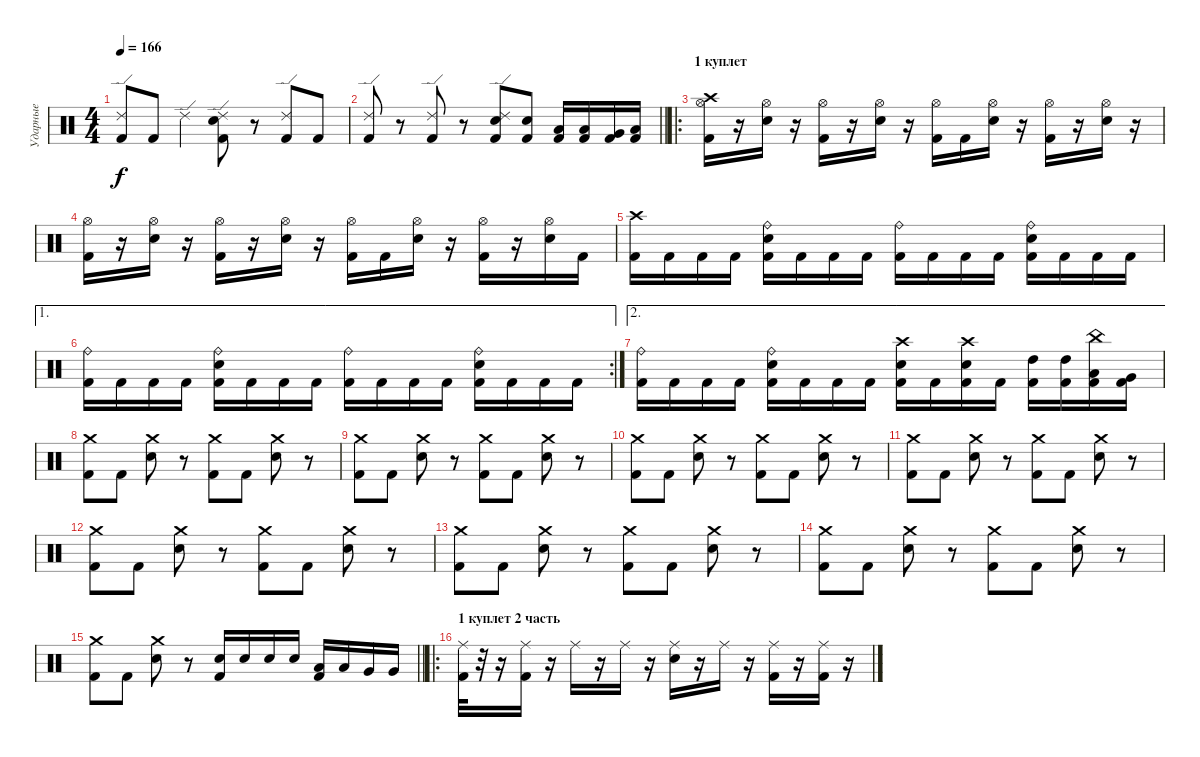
\track ("Ударные" "Ударные") {instrument percussion}
\staff {score}
\articulation defaults
\ts (4 4)
\tempo 166
\clef neutral
\ks c
("Ride (edge) 2" "Kick (hit) 2").8{dy f} "Kick (hit) 2".8 "Ride (edge) 2".4 ("Snare (hit) 2" "Ride (edge) 2" "Kick (hit) 2").8 r.8 ("Ride (edge) 2" "Kick (hit) 2").8 "Kick (hit) 2".8 |
\barLineRight lightlight
("Ride (edge) 2" "Kick (hit) 2").8 r.8 ("Ride (edge) 2" "Kick (hit) 2").8 r.8 ("Ride (edge) 2" "Snare (hit) 2" "Kick (hit) 2").8 ("Snare (hit) 2" "Kick (hit) 2").8 ("Low Tom (hit)" "Kick (hit) 2").16 ("Low Tom (hit)" "Kick (hit) 2").16 ("Very Low Tom (hit)" "Kick (hit) 2").16 ("Low Floor Tom (hit)" "Kick (hit) 2").16 |
\ro
\section ("" "1 куплет")
("Crash high (hit)" "Hi-Hat (open)" "Kick (hit) 2").16 r.16 ("Hi-Hat (open)" "Snare (hit) 2").16 r.16 ("Hi-Hat (open)" "Kick (hit) 2").16 r.16 ("Hi-Hat (open)" "Snare (hit) 2").16 r.16 ("Hi-Hat (open)" "Kick (hit) 2").16 "Kick (hit) 2".16 ("Hi-Hat (open)" "Snare (hit) 2").16 r.16 ("Hi-Hat (open)" "Kick (hit) 2").16 r.16 ("Hi-Hat (open)" "Snare (hit) 2").16 r.16 |
("Hi-Hat (open)" "Kick (hit) 2").16 r.16 ("Hi-Hat (open)" "Snare (hit) 2").16 r.16 ("Hi-Hat (open)" "Kick (hit) 2").16 r.16 ("Hi-Hat (open)" "Snare (hit) 2").16 r.16 ("Hi-Hat (open)" "Kick (hit) 2").16 "Kick (hit) 2".16 ("Hi-Hat (open)" "Snare (hit) 2").16 r.16 ("Hi-Hat (open)" "Kick (hit) 2").16 r.16 ("Hi-Hat (open)" "Snare (hit) 2").16 "Kick (hit) 2".16 |
("Crash high (hit)" "Kick (hit) 2").16 "Kick (hit) 2".16 "Kick (hit) 2".16 "Kick (hit) 2".16 ("Ride (bell)" "Snare (hit) 2" "Kick (hit) 2").16 "Kick (hit) 2".16 "Kick (hit) 2".16 "Kick (hit) 2".16 ("Ride (bell)" "Kick (hit) 2").16 "Kick (hit) 2".16 "Kick (hit) 2".16 "Kick (hit) 2".16 ("Ride (bell)" "Snare (hit) 2" "Kick (hit) 2").16 "Kick (hit) 2".16 "Kick (hit) 2".16 "Kick (hit) 2".16 |
\ae 1
\rc 2
("Ride (bell)" "Kick (hit) 2").16 "Kick (hit) 2".16 "Kick (hit) 2".16 "Kick (hit) 2".16 ("Ride (bell)" "Snare (hit) 2" "Kick (hit) 2").16 "Kick (hit) 2".16 "Kick (hit) 2".16 "Kick (hit) 2".16 ("Ride (bell)" "Kick (hit) 2").16 "Kick (hit) 2".16 "Kick (hit) 2".16 "Kick (hit) 2".16 ("Ride (bell)" "Snare (hit) 2" "Kick (hit) 2").16 "Kick (hit) 2".16 "Kick (hit) 2".16 "Kick (hit) 2".16 |
\ae 2
("Ride (bell)" "Kick (hit) 2").16 "Kick (hit) 2".16 "Kick (hit) 2".16 "Kick (hit) 2".16 ("Ride (bell)" "Snare (hit) 2" "Kick (hit) 2").16 "Kick (hit) 2".16 "Kick (hit) 2".16 "Kick (hit) 2".16 ("Crash high (hit)" "Snare (hit) 2" "Kick (hit) 2").16 "Kick (hit) 2".16 ("Crash high (hit)" "Snare (hit) 2" "Kick (hit) 2").16 "Kick (hit) 2".16 ("High Tom (hit)" "Kick (hit) 2").16 ("High Tom (hit)" "Kick (hit) 2").16 ("China (hit)" "Low Tom (hit)" "Kick (hit) 2").16 ("Very Low Tom (hit)" "Kick (hit) 2").16 |
("Crash medium (hit)" "Kick (hit) 2").8 "Kick (hit) 2".8 ("Crash medium (hit)" "Snare (hit) 2").8 r.8 ("Crash medium (hit)" "Kick (hit) 2").8 "Kick (hit) 2".8 ("Crash medium (hit)" "Snare (hit) 2").8 r.8 |
("Crash medium (hit)" "Kick (hit) 2").8 "Kick (hit) 2".8 ("Crash medium (hit)" "Snare (hit) 2").8 r.8 ("Crash medium (hit)" "Kick (hit) 2").8 "Kick (hit) 2".8 ("Crash medium (hit)" "Snare (hit) 2").8 r.8 |
("Crash medium (hit)" "Kick (hit) 2").8 "Kick (hit) 2".8 ("Crash medium (hit)" "Snare (hit) 2").8 r.8 ("Crash medium (hit)" "Kick (hit) 2").8 "Kick (hit) 2".8 ("Crash medium (hit)" "Snare (hit) 2").8 r.8 |
("Crash medium (hit)" "Kick (hit) 2").8 "Kick (hit) 2".8 ("Crash medium (hit)" "Snare (hit) 2").8 r.8 ("Crash medium (hit)" "Kick (hit) 2").8 "Kick (hit) 2".8 ("Crash medium (hit)" "Snare (hit) 2").8 r.8 |
("Crash medium (hit)" "Kick (hit) 2").8 "Kick (hit) 2".8 ("Crash medium (hit)" "Snare (hit) 2").8 r.8 ("Crash medium (hit)" "Kick (hit) 2").8 "Kick (hit) 2".8 ("Crash medium (hit)" "Snare (hit) 2").8 r.8 |
("Crash medium (hit)" "Kick (hit) 2").8 "Kick (hit) 2".8 ("Crash medium (hit)" "Snare (hit) 2").8 r.8 ("Crash medium (hit)" "Kick (hit) 2").8 "Kick (hit) 2".8 ("Crash medium (hit)" "Snare (hit) 2").8 r.8 |
("Crash medium (hit)" "Kick (hit) 2").8 "Kick (hit) 2".8 ("Crash medium (hit)" "Snare (hit) 2").8 r.8 ("Crash medium (hit)" "Kick (hit) 2").8 "Kick (hit) 2".8 ("Crash medium (hit)" "Snare (hit) 2").8 r.8 |
\barLineRight lightlight
("Crash medium (hit)" "Kick (hit) 2").8 "Kick (hit) 2".8 ("Crash medium (hit)" "Snare (hit) 2").8 r.8 ("Snare (hit) 2" "Kick (hit) 2").16 "Snare (hit) 2".16 "Snare (hit) 2".16 "Snare (hit) 2".16 ("Low Tom (hit)" "Kick (hit) 2").16 "Low Tom (hit)".16 "Very Low Tom (hit)".16 "Very Low Tom (hit)".16 |
\ro
\section ("" "1 куплет 2 часть")
("Ride (middle)" "Kick (hit) 2").32 r.32 r.16 ("Ride (middle)" "Kick (hit) 2").16 r.16 "Ride (middle)".16 r.16 "Ride (middle)".16 r.16 ("Ride (middle)" "Snare (hit) 2").16 r.16 "Ride (middle)".16 r.16 ("Ride (middle)" "Kick (hit) 2").16 r.16 ("Ride (middle)" "Kick (hit) 2").16 r.16
